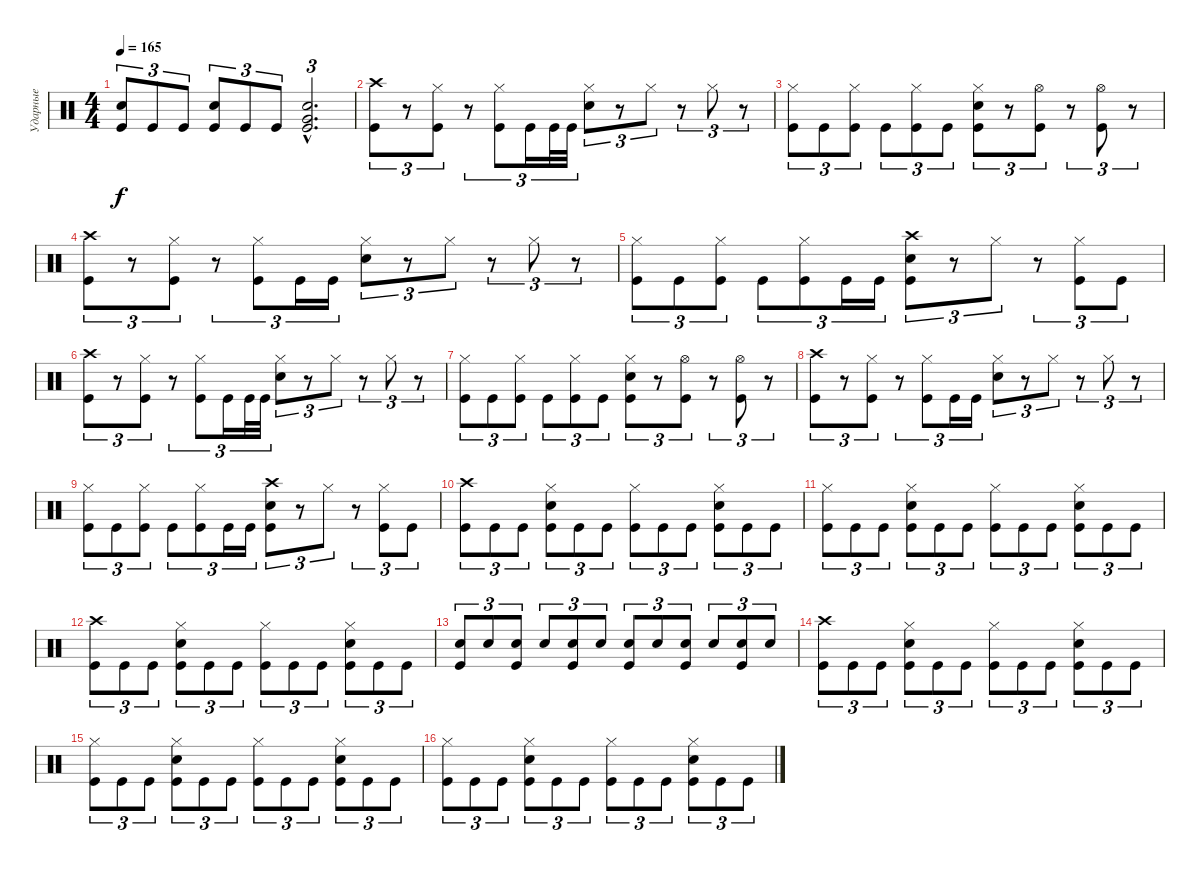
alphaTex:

\track ("Ударные" "Ударные") {instrument percussion}
\staff {score}
\articulation defaults
\ts (4 4)
\tempo 165
\clef neutral
\ks c
("Electric Snare (hit)" "Kick (hit)").8{tu (3 2) dy f} "Kick (hit)".8{tu (3 2)} "Kick (hit)".8{tu (3 2)} ("Electric Snare (hit)" "Kick (hit)").8{tu (3 2)} "Kick (hit)".8{tu (3 2)} "Kick (hit)".8{tu (3 2)} ("Very Low Tom (hit)"{hac} "Electric Snare (hit)"{hac} "Kick (hit)"{hac}).2{d tu (3 2)} |
("Crash high (hit)" "Kick (hit)").8{tu (3 2)} r.8{tu (3 2)} ("Hi-Hat (closed)" "Kick (hit)").8{tu (3 2)} r.8{tu (3 2)} ("Hi-Hat (closed)" "Kick (hit)").8{tu (3 2)} "Kick (hit)".16{tu (3 2)} "Kick (hit)".32{tu (3 2)} "Kick (hit)".32{tu (3 2)} ("Hi-Hat (closed)" "Electric Snare (hit)").8{tu (3 2)} r.8{tu (3 2)} "Hi-Hat (closed)".8{tu (3 2)} r.8{tu (3 2)} "Hi-Hat (closed)".8{tu (3 2)} r.8{tu (3 2)} |
("Hi-Hat (closed)" "Kick (hit)").8{tu (3 2)} "Kick (hit)".8{tu (3 2)} ("Hi-Hat (closed)" "Kick (hit)").8{tu (3 2)} "Kick (hit)".8{tu (3 2)} ("Hi-Hat (closed)" "Kick (hit)").8{tu (3 2)} "Kick (hit)".8{tu (3 2)} ("Hi-Hat (closed)" "Electric Snare (hit)" "Kick (hit)").8{tu (3 2)} r.8{tu (3 2)} ("Hi-Hat (open)" "Kick (hit)").8{tu (3 2)} r.8{tu (3 2)} ("Hi-Hat (open)" "Kick (hit)").8{tu (3 2)} r.8{tu (3 2)} |
("Crash high (hit)" "Kick (hit)").8{tu (3 2)} r.8{tu (3 2)} ("Hi-Hat (closed)" "Kick (hit)").8{tu (3 2)} r.8{tu (3 2)} ("Hi-Hat (closed)" "Kick (hit)").8{tu (3 2)} "Kick (hit)".16{tu (3 2)} "Kick (hit)".16{tu (3 2)} ("Hi-Hat (closed)" "Electric Snare (hit)").8{tu (3 2)} r.8{tu (3 2)} "Hi-Hat (closed)".8{tu (3 2)} r.8{tu (3 2)} "Hi-Hat (closed)".8{tu (3 2)} r.8{tu (3 2)} |
("Hi-Hat (closed)" "Kick (hit)").8{tu (3 2)} "Kick (hit)".8{tu (3 2)} ("Hi-Hat (closed)" "Kick (hit)").8{tu (3 2)} "Kick (hit)".8{tu (3 2)} ("Hi-Hat (closed)" "Kick (hit)").8{tu (3 2)} "Kick (hit)".16{tu (3 2)} "Kick (hit)".16{tu (3 2)} ("Crash high (hit)" "Electric Snare (hit)" "Kick (hit)").8{tu (3 2)} r.8{tu (3 2)} "Hi-Hat (closed)".8{tu (3 2)} r.8{tu (3 2)} ("Hi-Hat (closed)" "Kick (hit)").8{tu (3 2)} "Kick (hit)".8{tu (3 2)} |
("Crash high (hit)" "Kick (hit)").8{tu (3 2)} r.8{tu (3 2)} ("Hi-Hat (closed)" "Kick (hit)").8{tu (3 2)} r.8{tu (3 2)} ("Hi-Hat (closed)" "Kick (hit)").8{tu (3 2)} "Kick (hit)".16{tu (3 2)} "Kick (hit)".32{tu (3 2)} "Kick (hit)".32{tu (3 2)} ("Hi-Hat (closed)" "Electric Snare (hit)").8{tu (3 2)} r.8{tu (3 2)} "Hi-Hat (closed)".8{tu (3 2)} r.8{tu (3 2)} "Hi-Hat (closed)".8{tu (3 2)} r.8{tu (3 2)} |
("Hi-Hat (closed)" "Kick (hit)").8{tu (3 2)} "Kick (hit)".8{tu (3 2)} ("Hi-Hat (closed)" "Kick (hit)").8{tu (3 2)} "Kick (hit)".8{tu (3 2)} ("Hi-Hat (closed)" "Kick (hit)").8{tu (3 2)} "Kick (hit)".8{tu (3 2)} ("Hi-Hat (closed)" "Electric Snare (hit)" "Kick (hit)").8{tu (3 2)} r.8{tu (3 2)} ("Hi-Hat (open)" "Kick (hit)").8{tu (3 2)} r.8{tu (3 2)} ("Hi-Hat (open)" "Kick (hit)").8{tu (3 2)} r.8{tu (3 2)} |
("Crash high (hit)" "Kick (hit)").8{tu (3 2)} r.8{tu (3 2)} ("Hi-Hat (closed)" "Kick (hit)").8{tu (3 2)} r.8{tu (3 2)} ("Hi-Hat (closed)" "Kick (hit)").8{tu (3 2)} "Kick (hit)".16{tu (3 2)} "Kick (hit)".16{tu (3 2)} ("Hi-Hat (closed)" "Electric Snare (hit)").8{tu (3 2)} r.8{tu (3 2)} "Hi-Hat (closed)".8{tu (3 2)} r.8{tu (3 2)} "Hi-Hat (closed)".8{tu (3 2)} r.8{tu (3 2)} |
("Hi-Hat (closed)" "Kick (hit)").8{tu (3 2)} "Kick (hit)".8{tu (3 2)} ("Hi-Hat (closed)" "Kick (hit)").8{tu (3 2)} "Kick (hit)".8{tu (3 2)} ("Hi-Hat (closed)" "Kick (hit)").8{tu (3 2)} "Kick (hit)".16{tu (3 2)} "Kick (hit)".16{tu (3 2)} ("Crash high (hit)" "Electric Snare (hit)" "Kick (hit)").8{tu (3 2)} r.8{tu (3 2)} "Hi-Hat (closed)".8{tu (3 2)} r.8{tu (3 2)} ("Hi-Hat (closed)" "Kick (hit)").8{tu (3 2)} "Kick (hit)".8{tu (3 2)} |
("Crash high (hit)" "Kick (hit)").8{tu (3 2)} "Kick (hit)".8{tu (3 2)} "Kick (hit)".8{tu (3 2)} ("Hi-Hat (closed)" "Electric Snare (hit)" "Kick (hit)").8{tu (3 2)} "Kick (hit)".8{tu (3 2)} "Kick (hit)".8{tu (3 2)} ("Hi-Hat (closed)" "Kick (hit)").8{tu (3 2)} "Kick (hit)".8{tu (3 2)} "Kick (hit)".8{tu (3 2)} ("Hi-Hat (closed)" "Electric Snare (hit)" "Kick (hit)").8{tu (3 2)} "Kick (hit)".8{tu (3 2)} "Kick (hit)".8{tu (3 2)} |
("Hi-Hat (closed)" "Kick (hit)").8{tu (3 2)} "Kick (hit)".8{tu (3 2)} "Kick (hit)".8{tu (3 2)} ("Hi-Hat (closed)" "Electric Snare (hit)" "Kick (hit)").8{tu (3 2)} "Kick (hit)".8{tu (3 2)} "Kick (hit)".8{tu (3 2)} ("Hi-Hat (closed)" "Kick (hit)").8{tu (3 2)} "Kick (hit)".8{tu (3 2)} "Kick (hit)".8{tu (3 2)} ("Hi-Hat (closed)" "Electric Snare (hit)" "Kick (hit)").8{tu (3 2)} "Kick (hit)".8{tu (3 2)} "Kick (hit)".8{tu (3 2)} |
("Crash high (hit)" "Kick (hit)").8{tu (3 2)} "Kick (hit)".8{tu (3 2)} "Kick (hit)".8{tu (3 2)} ("Hi-Hat (closed)" "Electric Snare (hit)" "Kick (hit)").8{tu (3 2)} "Kick (hit)".8{tu (3 2)} "Kick (hit)".8{tu (3 2)} ("Hi-Hat (closed)" "Kick (hit)").8{tu (3 2)} "Kick (hit)".8{tu (3 2)} "Kick (hit)".8{tu (3 2)} ("Hi-Hat (closed)" "Electric Snare (hit)" "Kick (hit)").8{tu (3 2)} "Kick (hit)".8{tu (3 2)} "Kick (hit)".8{tu (3 2)} |
("Electric Snare (hit)" "Kick (hit)").8{tu (3 2)} "Electric Snare (hit)".8{tu (3 2)} ("Electric Snare (hit)" "Kick (hit)").8{tu (3 2)} "Electric Snare (hit)".8{tu (3 2)} ("Electric Snare (hit)" "Kick (hit)").8{tu (3 2)} "Electric Snare (hit)".8{tu (3 2)} ("Electric Snare (hit)" "Kick (hit)").8{tu (3 2)} "Electric Snare (hit)".8{tu (3 2)} ("Electric Snare (hit)" "Kick (hit)").8{tu (3 2)} "Electric Snare (hit)".8{tu (3 2)} ("Electric Snare (hit)" "Kick (hit)").8{tu (3 2)} "Electric Snare (hit)".8{tu (3 2)} |
("Crash high (hit)" "Kick (hit)").8{tu (3 2)} "Kick (hit)".8{tu (3 2)} "Kick (hit)".8{tu (3 2)} ("Hi-Hat (closed)" "Electric Snare (hit)" "Kick (hit)").8{tu (3 2)} "Kick (hit)".8{tu (3 2)} "Kick (hit)".8{tu (3 2)} ("Hi-Hat (closed)" "Kick (hit)").8{tu (3 2)} "Kick (hit)".8{tu (3 2)} "Kick (hit)".8{tu (3 2)} ("Hi-Hat (closed)" "Electric Snare (hit)" "Kick (hit)").8{tu (3 2)} "Kick (hit)".8{tu (3 2)} "Kick (hit)".8{tu (3 2)} |
("Hi-Hat (closed)" "Kick (hit)").8{tu (3 2)} "Kick (hit)".8{tu (3 2)} "Kick (hit)".8{tu (3 2)} ("Hi-Hat (closed)" "Electric Snare (hit)" "Kick (hit)").8{tu (3 2)} "Kick (hit)".8{tu (3 2)} "Kick (hit)".8{tu (3 2)} ("Hi-Hat (closed)" "Kick (hit)").8{tu (3 2)} "Kick (hit)".8{tu (3 2)} "Kick (hit)".8{tu (3 2)} ("Hi-Hat (closed)" "Electric Snare (hit)" "Kick (hit)").8{tu (3 2)} "Kick (hit)".8{tu (3 2)} "Kick (hit)".8{tu (3 2)} |
("Hi-Hat (closed)" "Kick (hit)").8{tu (3 2)} "Kick (hit)".8{tu (3 2)} "Kick (hit)".8{tu (3 2)} ("Hi-Hat (closed)" "Electric Snare (hit)" "Kick (hit)").8{tu (3 2)} "Kick (hit)".8{tu (3 2)} "Kick (hit)".8{tu (3 2)} ("Hi-Hat (closed)" "Kick (hit)").8{tu (3 2)} "Kick (hit)".8{tu (3 2)} "Kick (hit)".8{tu (3 2)} ("Hi-Hat (closed)" "Electric Snare (hit)" "Kick (hit)").8{tu (3 2)} "Kick (hit)".8{tu (3 2)} "Kick (hit)".8{tu (3 2)}
